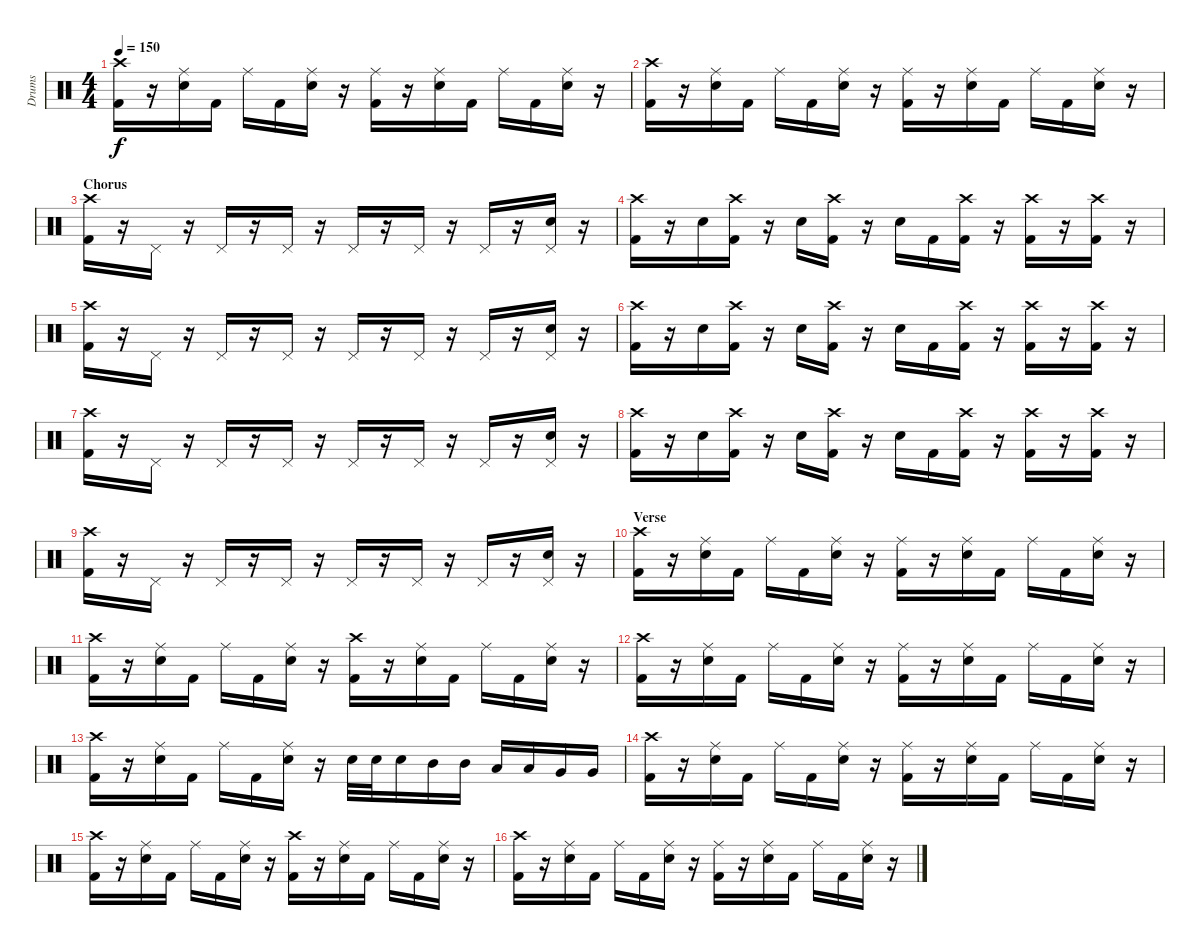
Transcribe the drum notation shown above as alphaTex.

\track ("Drums" "Drums") {instrument percussion}
\staff {score}
\articulation defaults
\ts (4 4)
\tempo 150
\clef neutral
\ks c
("Crash high (hit)" "Kick (hit) 2").16{dy f} r.16 ("Ride (middle)" "Electric Snare (hit)").16 "Kick (hit) 2".16 "Ride (middle)".16 "Kick (hit) 2".16 ("Ride (middle)" "Electric Snare (hit)").16 r.16 ("Ride (middle)" "Kick (hit) 2").16 r.16 ("Ride (middle)" "Electric Snare (hit)").16 "Kick (hit) 2".16 "Ride (middle)".16 "Kick (hit) 2".16 ("Ride (middle)" "Electric Snare (hit)").16 r.16 |
("Crash high (hit)" "Kick (hit) 2").16 r.16 ("Ride (middle)" "Electric Snare (hit)").16 "Kick (hit) 2".16 "Ride (middle)".16 "Kick (hit) 2".16 ("Ride (middle)" "Electric Snare (hit)").16 r.16 ("Ride (middle)" "Kick (hit) 2").16 r.16 ("Ride (middle)" "Electric Snare (hit)").16 "Kick (hit) 2".16 "Ride (middle)".16 "Kick (hit) 2".16 ("Ride (middle)" "Electric Snare (hit)").16 r.16 |
\section ("" "Chorus")
("Crash high (hit)" "Kick (hit) 2").16 r.16 "Pedal Hi-Hat (hit)".16 r.16 "Pedal Hi-Hat (hit)".16 r.16 "Pedal Hi-Hat (hit)".16 r.16 "Pedal Hi-Hat (hit)".16 r.16 "Pedal Hi-Hat (hit)".16 r.16 "Pedal Hi-Hat (hit)".16 r.16 ("Pedal Hi-Hat (hit)" "Electric Snare (hit)").16 r.16 |
("Crash high (hit)" "Kick (hit) 2").16 r.16 "Electric Snare (hit)".16 ("Crash high (hit)" "Kick (hit) 2").16 r.16 "Electric Snare (hit)".16 ("Crash high (hit)" "Kick (hit) 2").16 r.16 "Electric Snare (hit)".16 "Kick (hit) 2".16 ("Crash high (hit)" "Kick (hit) 2").16 r.16 ("Crash high (hit)" "Kick (hit) 2").16 r.16 ("Crash high (hit)" "Kick (hit) 2").16 r.16 |
("Crash high (hit)" "Kick (hit) 2").16 r.16 "Pedal Hi-Hat (hit)".16 r.16 "Pedal Hi-Hat (hit)".16 r.16 "Pedal Hi-Hat (hit)".16 r.16 "Pedal Hi-Hat (hit)".16 r.16 "Pedal Hi-Hat (hit)".16 r.16 "Pedal Hi-Hat (hit)".16 r.16 ("Pedal Hi-Hat (hit)" "Electric Snare (hit)").16 r.16 |
("Crash high (hit)" "Kick (hit) 2").16 r.16 "Electric Snare (hit)".16 ("Crash high (hit)" "Kick (hit) 2").16 r.16 "Electric Snare (hit)".16 ("Crash high (hit)" "Kick (hit) 2").16 r.16 "Electric Snare (hit)".16 "Kick (hit) 2".16 ("Crash high (hit)" "Kick (hit) 2").16 r.16 ("Crash high (hit)" "Kick (hit) 2").16 r.16 ("Crash high (hit)" "Kick (hit) 2").16 r.16 |
("Crash high (hit)" "Kick (hit) 2").16 r.16 "Pedal Hi-Hat (hit)".16 r.16 "Pedal Hi-Hat (hit)".16 r.16 "Pedal Hi-Hat (hit)".16 r.16 "Pedal Hi-Hat (hit)".16 r.16 "Pedal Hi-Hat (hit)".16 r.16 "Pedal Hi-Hat (hit)".16 r.16 ("Pedal Hi-Hat (hit)" "Electric Snare (hit)").16 r.16 |
("Crash high (hit)" "Kick (hit) 2").16 r.16 "Electric Snare (hit)".16 ("Crash high (hit)" "Kick (hit) 2").16 r.16 "Electric Snare (hit)".16 ("Crash high (hit)" "Kick (hit) 2").16 r.16 "Electric Snare (hit)".16 "Kick (hit) 2".16 ("Crash high (hit)" "Kick (hit) 2").16 r.16 ("Crash high (hit)" "Kick (hit) 2").16 r.16 ("Crash high (hit)" "Kick (hit) 2").16 r.16 |
("Crash high (hit)" "Kick (hit) 2").16 r.16 "Pedal Hi-Hat (hit)".16 r.16 "Pedal Hi-Hat (hit)".16 r.16 "Pedal Hi-Hat (hit)".16 r.16 "Pedal Hi-Hat (hit)".16 r.16 "Pedal Hi-Hat (hit)".16 r.16 "Pedal Hi-Hat (hit)".16 r.16 ("Pedal Hi-Hat (hit)" "Electric Snare (hit)").16 r.16 |
\section ("" "Verse")
("Crash high (hit)" "Kick (hit) 2").16 r.16 ("Ride (middle)" "Electric Snare (hit)").16 "Kick (hit) 2".16 "Ride (middle)".16 "Kick (hit) 2".16 ("Ride (middle)" "Electric Snare (hit)").16 r.16 ("Ride (middle)" "Kick (hit) 2").16 r.16 ("Ride (middle)" "Electric Snare (hit)").16 "Kick (hit) 2".16 "Ride (middle)".16 "Kick (hit) 2".16 ("Ride (middle)" "Electric Snare (hit)").16 r.16 |
("Crash high (hit)" "Kick (hit) 2").16 r.16 ("Ride (middle)" "Electric Snare (hit)").16 "Kick (hit) 2".16 "Ride (middle)".16 "Kick (hit) 2".16 ("Ride (middle)" "Electric Snare (hit)").16 r.16 ("Crash high (hit)" "Kick (hit) 2").16 r.16 ("Ride (middle)" "Electric Snare (hit)").16 "Kick (hit) 2".16 "Ride (middle)".16 "Kick (hit) 2".16 ("Ride (middle)" "Electric Snare (hit)").16 r.16 |
("Crash high (hit)" "Kick (hit) 2").16 r.16 ("Ride (middle)" "Electric Snare (hit)").16 "Kick (hit) 2".16 "Ride (middle)".16 "Kick (hit) 2".16 ("Ride (middle)" "Electric Snare (hit)").16 r.16 ("Ride (middle)" "Kick (hit) 2").16 r.16 ("Ride (middle)" "Electric Snare (hit)").16 "Kick (hit) 2".16 "Ride (middle)".16 "Kick (hit) 2".16 ("Ride (middle)" "Electric Snare (hit)").16 r.16 |
("Crash high (hit)" "Kick (hit) 2").16 r.16 ("Ride (middle)" "Electric Snare (hit)").16 "Kick (hit) 2".16 "Ride (middle)".16 "Kick (hit) 2".16 ("Ride (middle)" "Electric Snare (hit)").16 r.16 "Electric Snare (hit)".32 "Electric Snare (hit)".32 "Electric Snare (hit)".16 "Mid Tom (hit)".16 "Mid Tom (hit)".16 "Low Tom (hit)".16 "Low Tom (hit)".16 "Very Low Tom (hit)".16 "Very Low Tom (hit)".16 |
("Crash high (hit)" "Kick (hit) 2").16 r.16 ("Ride (middle)" "Electric Snare (hit)").16 "Kick (hit) 2".16 "Ride (middle)".16 "Kick (hit) 2".16 ("Ride (middle)" "Electric Snare (hit)").16 r.16 ("Ride (middle)" "Kick (hit) 2").16 r.16 ("Ride (middle)" "Electric Snare (hit)").16 "Kick (hit) 2".16 "Ride (middle)".16 "Kick (hit) 2".16 ("Ride (middle)" "Electric Snare (hit)").16 r.16 |
("Crash high (hit)" "Kick (hit) 2").16 r.16 ("Ride (middle)" "Electric Snare (hit)").16 "Kick (hit) 2".16 "Ride (middle)".16 "Kick (hit) 2".16 ("Ride (middle)" "Electric Snare (hit)").16 r.16 ("Crash high (hit)" "Kick (hit) 2").16 r.16 ("Ride (middle)" "Electric Snare (hit)").16 "Kick (hit) 2".16 "Ride (middle)".16 "Kick (hit) 2".16 ("Ride (middle)" "Electric Snare (hit)").16 r.16 |
("Crash high (hit)" "Kick (hit) 2").16 r.16 ("Ride (middle)" "Electric Snare (hit)").16 "Kick (hit) 2".16 "Ride (middle)".16 "Kick (hit) 2".16 ("Ride (middle)" "Electric Snare (hit)").16 r.16 ("Ride (middle)" "Kick (hit) 2").16 r.16 ("Ride (middle)" "Electric Snare (hit)").16 "Kick (hit) 2".16 "Ride (middle)".16 "Kick (hit) 2".16 ("Ride (middle)" "Electric Snare (hit)").16 r.16
